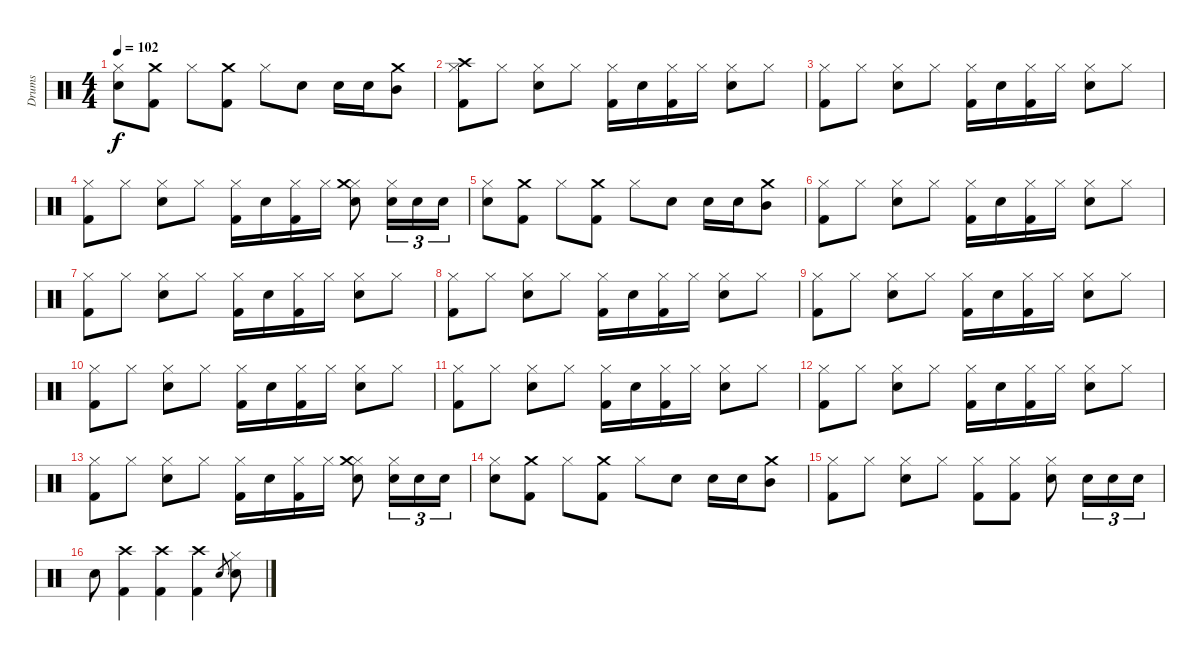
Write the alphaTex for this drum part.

\track ("Drums" "Drums") {instrument percussion}
\staff {score}
\articulation defaults
\ts (4 4)
\tempo 102
\clef neutral
\ks c
("Snare (hit) 2" "Hi-Hat (closed)").8{dy f} ("Kick (hit) 2" "Crash medium (hit)").8 "Hi-Hat (closed)".8 ("Kick (hit) 2" "Crash medium (hit)").8 "Hi-Hat (closed)".8 "Snare (hit) 2".8 "Snare (hit) 2".16 "Snare (hit) 2".16 ("Crash medium (hit)" "Mid Tom (hit)").8 |
("Kick (hit) 2" "Hi-Hat (closed)" "Crash high (hit)").8 "Hi-Hat (closed)".8 ("Snare (hit) 2" "Hi-Hat (closed)").8 "Hi-Hat (closed)".8 ("Kick (hit) 2" "Hi-Hat (closed)").16 "Snare (hit) 2".16 ("Kick (hit) 2" "Hi-Hat (closed)").16 "Hi-Hat (closed)".16 ("Snare (hit) 2" "Hi-Hat (closed)").8 "Hi-Hat (closed)".8 |
("Kick (hit) 2" "Hi-Hat (closed)").8 "Hi-Hat (closed)".8 ("Snare (hit) 2" "Hi-Hat (closed)").8 "Hi-Hat (closed)".8 ("Kick (hit) 2" "Hi-Hat (closed)").16 "Snare (hit) 2".16 ("Kick (hit) 2" "Hi-Hat (closed)").16 "Hi-Hat (closed)".16 ("Snare (hit) 2" "Hi-Hat (closed)").8 "Hi-Hat (closed)".8 |
("Kick (hit) 2" "Hi-Hat (closed)").8 "Hi-Hat (closed)".8 ("Snare (hit) 2" "Hi-Hat (closed)").8 "Hi-Hat (closed)".8 ("Kick (hit) 2" "Hi-Hat (closed)").16 "Snare (hit) 2".16 ("Kick (hit) 2" "Hi-Hat (closed)").16 "Hi-Hat (closed)".16 ("Snare (hit) 2" "Hi-Hat (closed)" "Crash medium (hit)").8 ("Snare (hit) 2" "Hi-Hat (closed)").16{tu (3 2)} "Snare (hit) 2".16{tu (3 2)} "Snare (hit) 2".16{tu (3 2)} |
("Snare (hit) 2" "Hi-Hat (closed)").8 ("Kick (hit) 2" "Crash medium (hit)").8 "Hi-Hat (closed)".8 ("Kick (hit) 2" "Crash medium (hit)").8 "Hi-Hat (closed)".8 "Snare (hit) 2".8 "Snare (hit) 2".16 "Snare (hit) 2".16 ("Crash medium (hit)" "Mid Tom (hit)").8 |
("Kick (hit) 2" "Hi-Hat (closed)").8 "Hi-Hat (closed)".8 ("Snare (hit) 2" "Hi-Hat (closed)").8 "Hi-Hat (closed)".8 ("Kick (hit) 2" "Hi-Hat (closed)").16 "Snare (hit) 2".16 ("Kick (hit) 2" "Hi-Hat (closed)").16 "Hi-Hat (closed)".16 ("Snare (hit) 2" "Hi-Hat (closed)").8 "Hi-Hat (closed)".8 |
("Kick (hit) 2" "Hi-Hat (closed)").8 "Hi-Hat (closed)".8 ("Snare (hit) 2" "Hi-Hat (closed)").8 "Hi-Hat (closed)".8 ("Kick (hit) 2" "Hi-Hat (closed)").16 "Snare (hit) 2".16 ("Kick (hit) 2" "Hi-Hat (closed)").16 "Hi-Hat (closed)".16 ("Snare (hit) 2" "Hi-Hat (closed)").8 "Hi-Hat (closed)".8 |
("Kick (hit) 2" "Hi-Hat (closed)").8 "Hi-Hat (closed)".8 ("Snare (hit) 2" "Hi-Hat (closed)").8 "Hi-Hat (closed)".8 ("Kick (hit) 2" "Hi-Hat (closed)").16 "Snare (hit) 2".16 ("Kick (hit) 2" "Hi-Hat (closed)").16 "Hi-Hat (closed)".16 ("Snare (hit) 2" "Hi-Hat (closed)").8 "Hi-Hat (closed)".8 |
("Kick (hit) 2" "Hi-Hat (closed)").8 "Hi-Hat (closed)".8 ("Snare (hit) 2" "Hi-Hat (closed)").8 "Hi-Hat (closed)".8 ("Kick (hit) 2" "Hi-Hat (closed)").16 "Snare (hit) 2".16 ("Kick (hit) 2" "Hi-Hat (closed)").16 "Hi-Hat (closed)".16 ("Snare (hit) 2" "Hi-Hat (closed)").8 "Hi-Hat (closed)".8 |
("Kick (hit) 2" "Hi-Hat (closed)").8 "Hi-Hat (closed)".8 ("Snare (hit) 2" "Hi-Hat (closed)").8 "Hi-Hat (closed)".8 ("Kick (hit) 2" "Hi-Hat (closed)").16 "Snare (hit) 2".16 ("Kick (hit) 2" "Hi-Hat (closed)").16 "Hi-Hat (closed)".16 ("Snare (hit) 2" "Hi-Hat (closed)").8 "Hi-Hat (closed)".8 |
("Kick (hit) 2" "Hi-Hat (closed)").8 "Hi-Hat (closed)".8 ("Snare (hit) 2" "Hi-Hat (closed)").8 "Hi-Hat (closed)".8 ("Kick (hit) 2" "Hi-Hat (closed)").16 "Snare (hit) 2".16 ("Kick (hit) 2" "Hi-Hat (closed)").16 "Hi-Hat (closed)".16 ("Snare (hit) 2" "Hi-Hat (closed)").8 "Hi-Hat (closed)".8 |
("Kick (hit) 2" "Hi-Hat (closed)").8 "Hi-Hat (closed)".8 ("Snare (hit) 2" "Hi-Hat (closed)").8 "Hi-Hat (closed)".8 ("Kick (hit) 2" "Hi-Hat (closed)").16 "Snare (hit) 2".16 ("Kick (hit) 2" "Hi-Hat (closed)").16 "Hi-Hat (closed)".16 ("Snare (hit) 2" "Hi-Hat (closed)").8 "Hi-Hat (closed)".8 |
("Kick (hit) 2" "Hi-Hat (closed)").8 "Hi-Hat (closed)".8 ("Snare (hit) 2" "Hi-Hat (closed)").8 "Hi-Hat (closed)".8 ("Kick (hit) 2" "Hi-Hat (closed)").16 "Snare (hit) 2".16 ("Kick (hit) 2" "Hi-Hat (closed)").16 "Hi-Hat (closed)".16 ("Snare (hit) 2" "Hi-Hat (closed)" "Crash medium (hit)").8 ("Snare (hit) 2" "Hi-Hat (closed)").16{tu (3 2)} "Snare (hit) 2".16{tu (3 2)} "Snare (hit) 2".16{tu (3 2)} |
("Snare (hit) 2" "Hi-Hat (closed)").8 ("Kick (hit) 2" "Crash medium (hit)").8 "Hi-Hat (closed)".8 ("Kick (hit) 2" "Crash medium (hit)").8 "Hi-Hat (closed)".8 "Snare (hit) 2".8 "Snare (hit) 2".16 "Snare (hit) 2".16 ("Crash medium (hit)" "Mid Tom (hit)").8 |
("Kick (hit) 2" "Hi-Hat (closed)").8 "Hi-Hat (closed)".8 ("Snare (hit) 2" "Hi-Hat (closed)").8 "Hi-Hat (closed)".8 ("Kick (hit) 2" "Hi-Hat (closed)").8 ("Kick (hit) 2" "Hi-Hat (closed)").8 ("Snare (hit) 2" "Hi-Hat (closed)").8 "Snare (hit) 2".16{tu (3 2)} "Snare (hit) 2".16{tu (3 2)} "Snare (hit) 2".16{tu (3 2)} |
"Snare (hit) 2".8 ("Kick (hit) 2" "Crash high (hit)").4 ("Kick (hit) 2" "Crash high (hit)").4 ("Kick (hit) 2" "Crash high (hit)").4 "Snare (hit) 2".8{gr} ("Snare (hit) 2" "Hi-Hat (closed)").8
